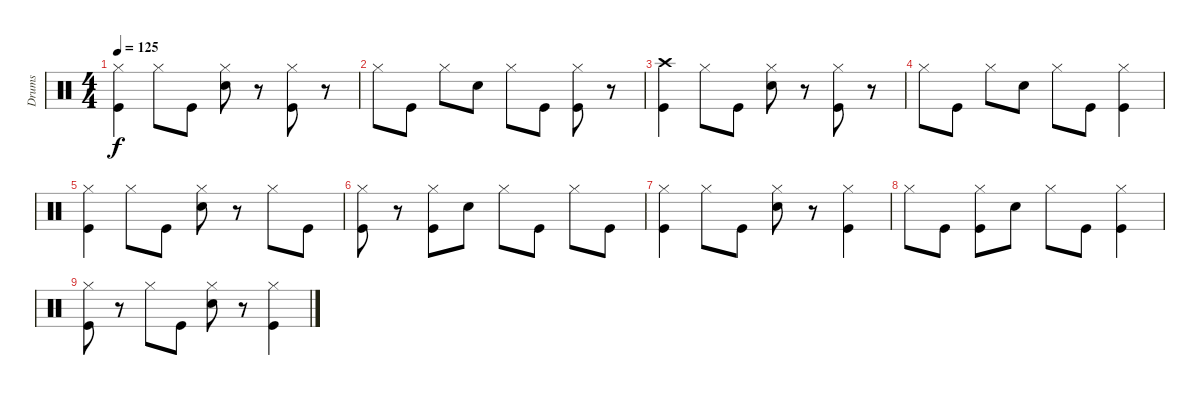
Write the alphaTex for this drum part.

\track ("Drums" "Drums") {instrument percussion}
\staff {score}
\articulation defaults
\ts (4 4)
\tempo 125
\clef neutral
\ks c
("Hi-Hat (closed)" "Kick (hit)").4{dy f} "Hi-Hat (closed)".8 "Kick (hit)".8 ("Hi-Hat (closed)" "Electric Snare (hit)").8 r.8 ("Hi-Hat (closed)" "Kick (hit)").8 r.8 |
"Hi-Hat (closed)".8 "Kick (hit)".8 "Hi-Hat (closed)".8 "Electric Snare (hit)".8 "Hi-Hat (closed)".8 "Kick (hit)".8 ("Hi-Hat (closed)" "Kick (hit)").8 r.8 |
("Crash high (hit)" "Kick (hit)").4 "Hi-Hat (closed)".8 "Kick (hit)".8 ("Hi-Hat (closed)" "Electric Snare (hit)").8 r.8 ("Hi-Hat (closed)" "Kick (hit)").8 r.8 |
"Hi-Hat (closed)".8 "Kick (hit)".8 "Hi-Hat (closed)".8 "Electric Snare (hit)".8 "Hi-Hat (closed)".8 "Kick (hit)".8 ("Hi-Hat (closed)" "Kick (hit)").4 |
("Hi-Hat (closed)" "Kick (hit)").4 "Hi-Hat (closed)".8 "Kick (hit)".8 ("Hi-Hat (closed)" "Electric Snare (hit)").8 r.8 "Hi-Hat (closed)".8 "Kick (hit)".8 |
("Hi-Hat (closed)" "Kick (hit)").8 r.8 ("Hi-Hat (closed)" "Kick (hit)").8 "Electric Snare (hit)".8 "Hi-Hat (closed)".8 "Kick (hit)".8 "Hi-Hat (closed)".8 "Kick (hit)".8 |
("Hi-Hat (closed)" "Kick (hit)").4 "Hi-Hat (closed)".8 "Kick (hit)".8 ("Hi-Hat (closed)" "Electric Snare (hit)").8 r.8 ("Hi-Hat (closed)" "Kick (hit)").4 |
"Hi-Hat (closed)".8 "Kick (hit)".8 ("Hi-Hat (closed)" "Kick (hit)").8 "Electric Snare (hit)".8 "Hi-Hat (closed)".8 "Kick (hit)".8 ("Hi-Hat (closed)" "Kick (hit)").4 |
("Hi-Hat (closed)" "Kick (hit)").8 r.8 "Hi-Hat (closed)".8 "Kick (hit)".8 ("Hi-Hat (closed)" "Electric Snare (hit)").8 r.8 ("Hi-Hat (closed)" "Kick (hit)").4
